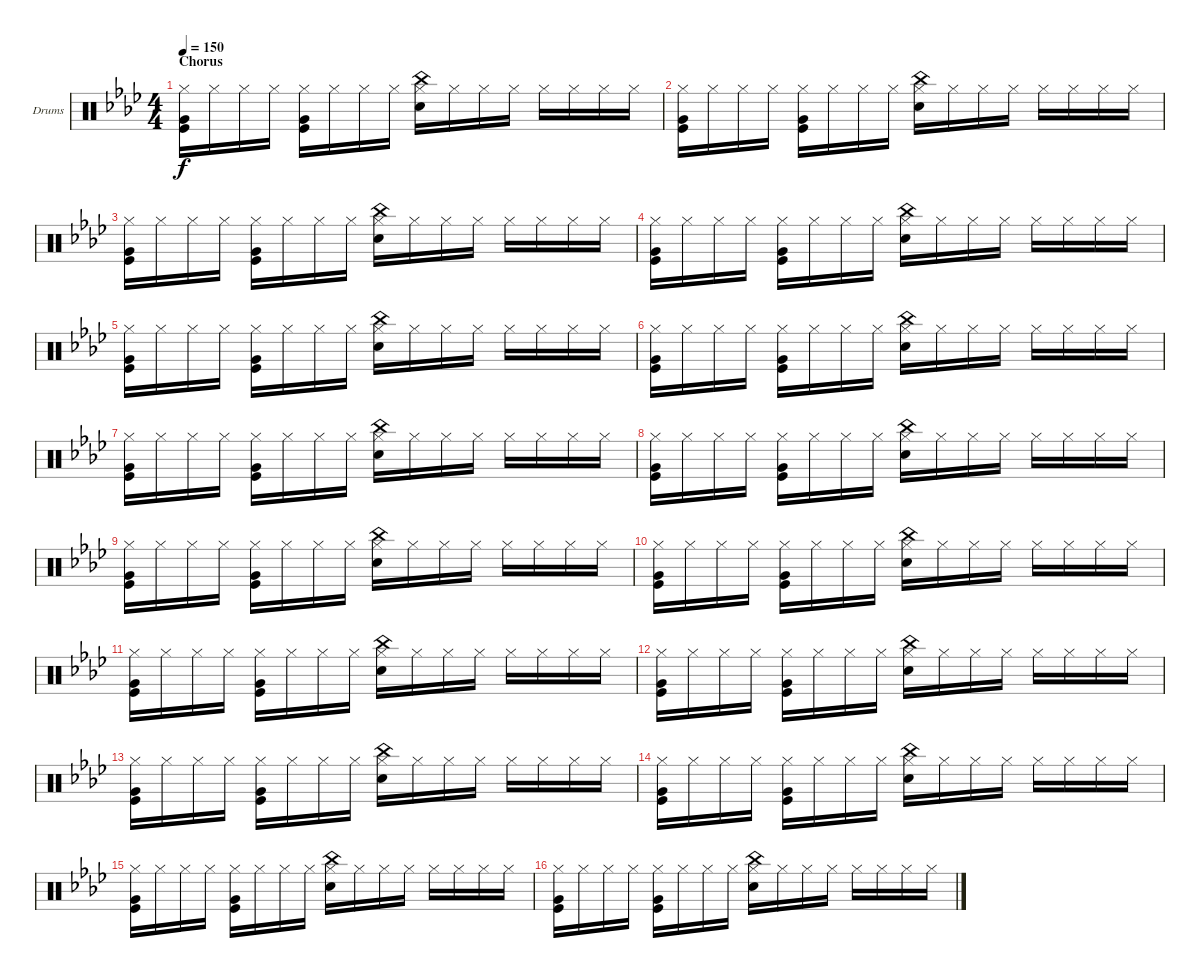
\bracketExtendMode groupsimilarinstruments
\firstSystemTrackNameOrientation horizontal
\otherSystemsTrackNameOrientation horizontal
\track ("Drums" "Drums") {instrument percussion}
\staff {score}
\articulation defaults
\ts (4 4)
\section ("" "Chorus")
\tempo 150
\clef neutral
\ks ab
("Kick (hit)" "Very Low Tom (hit)" "Hi-Hat (closed)").16{dy f} "Hi-Hat (closed)".16 "Hi-Hat (closed)".16 "Hi-Hat (closed)".16 ("Kick (hit)" "Very Low Tom (hit)" "Hi-Hat (closed)").16 "Hi-Hat (closed)".16 "Hi-Hat (closed)".16 "Hi-Hat (closed)".16 ("Hi-Hat (closed)" "Snare (hit) 2" "China (hit)").16 "Hi-Hat (closed)".16 "Hi-Hat (closed)".16 "Hi-Hat (closed)".16 "Hi-Hat (closed)".16 "Hi-Hat (closed)".16 "Hi-Hat (closed)".16 "Hi-Hat (closed)".16 |
("Kick (hit)" "Very Low Tom (hit)" "Hi-Hat (closed)").16 "Hi-Hat (closed)".16 "Hi-Hat (closed)".16 "Hi-Hat (closed)".16 ("Kick (hit)" "Very Low Tom (hit)" "Hi-Hat (closed)").16 "Hi-Hat (closed)".16 "Hi-Hat (closed)".16 "Hi-Hat (closed)".16 ("Hi-Hat (closed)" "Snare (hit) 2" "China (hit)").16 "Hi-Hat (closed)".16 "Hi-Hat (closed)".16 "Hi-Hat (closed)".16 "Hi-Hat (closed)".16 "Hi-Hat (closed)".16 "Hi-Hat (closed)".16 "Hi-Hat (closed)".16 |
("Kick (hit)" "Very Low Tom (hit)" "Hi-Hat (closed)").16 "Hi-Hat (closed)".16 "Hi-Hat (closed)".16 "Hi-Hat (closed)".16 ("Kick (hit)" "Very Low Tom (hit)" "Hi-Hat (closed)").16 "Hi-Hat (closed)".16 "Hi-Hat (closed)".16 "Hi-Hat (closed)".16 ("Hi-Hat (closed)" "Snare (hit) 2" "China (hit)").16 "Hi-Hat (closed)".16 "Hi-Hat (closed)".16 "Hi-Hat (closed)".16 "Hi-Hat (closed)".16 "Hi-Hat (closed)".16 "Hi-Hat (closed)".16 "Hi-Hat (closed)".16 |
("Kick (hit)" "Very Low Tom (hit)" "Hi-Hat (closed)").16 "Hi-Hat (closed)".16 "Hi-Hat (closed)".16 "Hi-Hat (closed)".16 ("Kick (hit)" "Very Low Tom (hit)" "Hi-Hat (closed)").16 "Hi-Hat (closed)".16 "Hi-Hat (closed)".16 "Hi-Hat (closed)".16 ("Hi-Hat (closed)" "Snare (hit) 2" "China (hit)").16 "Hi-Hat (closed)".16 "Hi-Hat (closed)".16 "Hi-Hat (closed)".16 "Hi-Hat (closed)".16 "Hi-Hat (closed)".16 "Hi-Hat (closed)".16 "Hi-Hat (closed)".16 |
("Kick (hit)" "Very Low Tom (hit)" "Hi-Hat (closed)").16 "Hi-Hat (closed)".16 "Hi-Hat (closed)".16 "Hi-Hat (closed)".16 ("Kick (hit)" "Very Low Tom (hit)" "Hi-Hat (closed)").16 "Hi-Hat (closed)".16 "Hi-Hat (closed)".16 "Hi-Hat (closed)".16 ("Hi-Hat (closed)" "Snare (hit) 2" "China (hit)").16 "Hi-Hat (closed)".16 "Hi-Hat (closed)".16 "Hi-Hat (closed)".16 "Hi-Hat (closed)".16 "Hi-Hat (closed)".16 "Hi-Hat (closed)".16 "Hi-Hat (closed)".16 |
("Kick (hit)" "Very Low Tom (hit)" "Hi-Hat (closed)").16 "Hi-Hat (closed)".16 "Hi-Hat (closed)".16 "Hi-Hat (closed)".16 ("Kick (hit)" "Very Low Tom (hit)" "Hi-Hat (closed)").16 "Hi-Hat (closed)".16 "Hi-Hat (closed)".16 "Hi-Hat (closed)".16 ("Hi-Hat (closed)" "Snare (hit) 2" "China (hit)").16 "Hi-Hat (closed)".16 "Hi-Hat (closed)".16 "Hi-Hat (closed)".16 "Hi-Hat (closed)".16 "Hi-Hat (closed)".16 "Hi-Hat (closed)".16 "Hi-Hat (closed)".16 |
("Kick (hit)" "Very Low Tom (hit)" "Hi-Hat (closed)").16 "Hi-Hat (closed)".16 "Hi-Hat (closed)".16 "Hi-Hat (closed)".16 ("Kick (hit)" "Very Low Tom (hit)" "Hi-Hat (closed)").16 "Hi-Hat (closed)".16 "Hi-Hat (closed)".16 "Hi-Hat (closed)".16 ("Hi-Hat (closed)" "Snare (hit) 2" "China (hit)").16 "Hi-Hat (closed)".16 "Hi-Hat (closed)".16 "Hi-Hat (closed)".16 "Hi-Hat (closed)".16 "Hi-Hat (closed)".16 "Hi-Hat (closed)".16 "Hi-Hat (closed)".16 |
("Kick (hit)" "Very Low Tom (hit)" "Hi-Hat (closed)").16 "Hi-Hat (closed)".16 "Hi-Hat (closed)".16 "Hi-Hat (closed)".16 ("Kick (hit)" "Very Low Tom (hit)" "Hi-Hat (closed)").16 "Hi-Hat (closed)".16 "Hi-Hat (closed)".16 "Hi-Hat (closed)".16 ("Hi-Hat (closed)" "Snare (hit) 2" "China (hit)").16 "Hi-Hat (closed)".16 "Hi-Hat (closed)".16 "Hi-Hat (closed)".16 "Hi-Hat (closed)".16 "Hi-Hat (closed)".16 "Hi-Hat (closed)".16 "Hi-Hat (closed)".16 |
("Kick (hit)" "Very Low Tom (hit)" "Hi-Hat (closed)").16 "Hi-Hat (closed)".16 "Hi-Hat (closed)".16 "Hi-Hat (closed)".16 ("Kick (hit)" "Very Low Tom (hit)" "Hi-Hat (closed)").16 "Hi-Hat (closed)".16 "Hi-Hat (closed)".16 "Hi-Hat (closed)".16 ("Hi-Hat (closed)" "Snare (hit) 2" "China (hit)").16 "Hi-Hat (closed)".16 "Hi-Hat (closed)".16 "Hi-Hat (closed)".16 "Hi-Hat (closed)".16 "Hi-Hat (closed)".16 "Hi-Hat (closed)".16 "Hi-Hat (closed)".16 |
("Kick (hit)" "Very Low Tom (hit)" "Hi-Hat (closed)").16 "Hi-Hat (closed)".16 "Hi-Hat (closed)".16 "Hi-Hat (closed)".16 ("Kick (hit)" "Very Low Tom (hit)" "Hi-Hat (closed)").16 "Hi-Hat (closed)".16 "Hi-Hat (closed)".16 "Hi-Hat (closed)".16 ("Hi-Hat (closed)" "Snare (hit) 2" "China (hit)").16 "Hi-Hat (closed)".16 "Hi-Hat (closed)".16 "Hi-Hat (closed)".16 "Hi-Hat (closed)".16 "Hi-Hat (closed)".16 "Hi-Hat (closed)".16 "Hi-Hat (closed)".16 |
("Kick (hit)" "Very Low Tom (hit)" "Hi-Hat (closed)").16 "Hi-Hat (closed)".16 "Hi-Hat (closed)".16 "Hi-Hat (closed)".16 ("Kick (hit)" "Very Low Tom (hit)" "Hi-Hat (closed)").16 "Hi-Hat (closed)".16 "Hi-Hat (closed)".16 "Hi-Hat (closed)".16 ("Hi-Hat (closed)" "Snare (hit) 2" "China (hit)").16 "Hi-Hat (closed)".16 "Hi-Hat (closed)".16 "Hi-Hat (closed)".16 "Hi-Hat (closed)".16 "Hi-Hat (closed)".16 "Hi-Hat (closed)".16 "Hi-Hat (closed)".16 |
("Kick (hit)" "Very Low Tom (hit)" "Hi-Hat (closed)").16 "Hi-Hat (closed)".16 "Hi-Hat (closed)".16 "Hi-Hat (closed)".16 ("Kick (hit)" "Very Low Tom (hit)" "Hi-Hat (closed)").16 "Hi-Hat (closed)".16 "Hi-Hat (closed)".16 "Hi-Hat (closed)".16 ("Hi-Hat (closed)" "Snare (hit) 2" "China (hit)").16 "Hi-Hat (closed)".16 "Hi-Hat (closed)".16 "Hi-Hat (closed)".16 "Hi-Hat (closed)".16 "Hi-Hat (closed)".16 "Hi-Hat (closed)".16 "Hi-Hat (closed)".16 |
("Kick (hit)" "Very Low Tom (hit)" "Hi-Hat (closed)").16 "Hi-Hat (closed)".16 "Hi-Hat (closed)".16 "Hi-Hat (closed)".16 ("Kick (hit)" "Very Low Tom (hit)" "Hi-Hat (closed)").16 "Hi-Hat (closed)".16 "Hi-Hat (closed)".16 "Hi-Hat (closed)".16 ("Hi-Hat (closed)" "Snare (hit) 2" "China (hit)").16 "Hi-Hat (closed)".16 "Hi-Hat (closed)".16 "Hi-Hat (closed)".16 "Hi-Hat (closed)".16 "Hi-Hat (closed)".16 "Hi-Hat (closed)".16 "Hi-Hat (closed)".16 |
("Kick (hit)" "Very Low Tom (hit)" "Hi-Hat (closed)").16 "Hi-Hat (closed)".16 "Hi-Hat (closed)".16 "Hi-Hat (closed)".16 ("Kick (hit)" "Very Low Tom (hit)" "Hi-Hat (closed)").16 "Hi-Hat (closed)".16 "Hi-Hat (closed)".16 "Hi-Hat (closed)".16 ("Hi-Hat (closed)" "Snare (hit) 2" "China (hit)").16 "Hi-Hat (closed)".16 "Hi-Hat (closed)".16 "Hi-Hat (closed)".16 "Hi-Hat (closed)".16 "Hi-Hat (closed)".16 "Hi-Hat (closed)".16 "Hi-Hat (closed)".16 |
("Kick (hit)" "Very Low Tom (hit)" "Hi-Hat (closed)").16 "Hi-Hat (closed)".16 "Hi-Hat (closed)".16 "Hi-Hat (closed)".16 ("Kick (hit)" "Very Low Tom (hit)" "Hi-Hat (closed)").16 "Hi-Hat (closed)".16 "Hi-Hat (closed)".16 "Hi-Hat (closed)".16 ("Hi-Hat (closed)" "Snare (hit) 2" "China (hit)").16 "Hi-Hat (closed)".16 "Hi-Hat (closed)".16 "Hi-Hat (closed)".16 "Hi-Hat (closed)".16 "Hi-Hat (closed)".16 "Hi-Hat (closed)".16 "Hi-Hat (closed)".16 |
("Kick (hit)" "Very Low Tom (hit)" "Hi-Hat (closed)").16 "Hi-Hat (closed)".16 "Hi-Hat (closed)".16 "Hi-Hat (closed)".16 ("Kick (hit)" "Very Low Tom (hit)" "Hi-Hat (closed)").16 "Hi-Hat (closed)".16 "Hi-Hat (closed)".16 "Hi-Hat (closed)".16 ("Hi-Hat (closed)" "Snare (hit) 2" "China (hit)").16 "Hi-Hat (closed)".16 "Hi-Hat (closed)".16 "Hi-Hat (closed)".16 "Hi-Hat (closed)".16 "Hi-Hat (closed)".16 "Hi-Hat (closed)".16 "Hi-Hat (closed)".16
